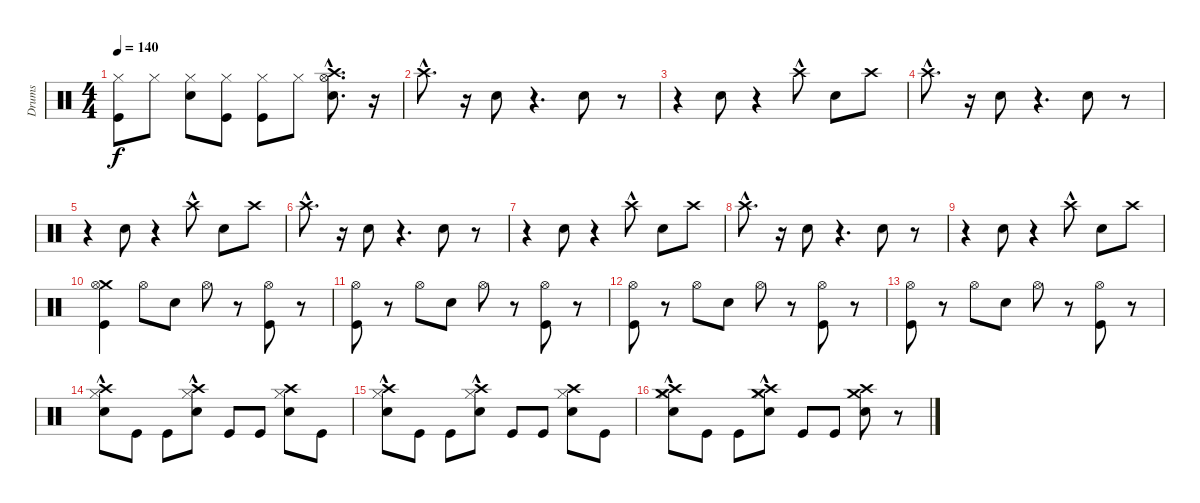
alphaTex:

\track ("Drums" "Drums") {instrument percussion}
\staff {score}
\articulation defaults
\ts (4 4)
\tempo 140
\clef neutral
\ks c
("Hi-Hat (closed)" "Kick (hit)").8{dy f} "Hi-Hat (closed)".8 ("Hi-Hat (closed)" "Electric Snare (hit)").8 ("Hi-Hat (closed)" "Kick (hit)").8 ("Hi-Hat (closed)" "Kick (hit)").8 "Hi-Hat (closed)".8 ("Electric Snare (hit)" "Crash high (hit)"{hac} "Hi-Hat (open)").8{d} r.16 |
"Crash high (hit)"{hac}.8{d} r.16 "Electric Snare (hit)".8 r.4{d} "Electric Snare (hit)".8 r.8 |
r.4 "Electric Snare (hit)".8 r.4 "Crash high (hit)"{hac}.8 "Electric Snare (hit)".8 "Crash high (hit)".8 |
"Crash high (hit)"{hac}.8{d} r.16 "Electric Snare (hit)".8 r.4{d} "Electric Snare (hit)".8 r.8 |
r.4 "Electric Snare (hit)".8 r.4 "Crash high (hit)"{hac}.8 "Electric Snare (hit)".8 "Crash high (hit)".8 |
"Crash high (hit)"{hac}.8{d} r.16 "Electric Snare (hit)".8 r.4{d} "Electric Snare (hit)".8 r.8 |
r.4 "Electric Snare (hit)".8 r.4 "Crash high (hit)"{hac}.8 "Electric Snare (hit)".8 "Crash high (hit)".8 |
"Crash high (hit)"{hac}.8{d} r.16 "Electric Snare (hit)".8 r.4{d} "Electric Snare (hit)".8 r.8 |
r.4 "Electric Snare (hit)".8 r.4 "Crash high (hit)"{hac}.8 "Electric Snare (hit)".8 "Crash high (hit)".8 |
("Crash medium (hit)" "Kick (hit)" "Hi-Hat (open)").4 "Hi-Hat (open)".8 "Electric Snare (hit)".8 "Hi-Hat (open)".8 r.8 ("Kick (hit)" "Hi-Hat (open)").8 r.8 |
("Kick (hit)" "Hi-Hat (open)").8 r.8 "Hi-Hat (open)".8 "Electric Snare (hit)".8 "Hi-Hat (open)".8 r.8 ("Kick (hit)" "Hi-Hat (open)").8 r.8 |
("Kick (hit)" "Hi-Hat (open)").8 r.8 "Hi-Hat (open)".8 "Electric Snare (hit)".8 "Hi-Hat (open)".8 r.8 ("Kick (hit)" "Hi-Hat (open)").8 r.8 |
("Kick (hit)" "Hi-Hat (open)").8 r.8 "Hi-Hat (open)".8 "Electric Snare (hit)".8 "Hi-Hat (open)".8 r.8 ("Kick (hit)" "Hi-Hat (open)").8 r.8 |
("Hi-Hat (closed)"{hac} "Electric Snare (hit)" "Crash high (hit)").8 "Kick (hit)".8 "Kick (hit)".8 ("Electric Snare (hit)" "Hi-Hat (closed)"{hac} "Crash high (hit)").8 "Kick (hit)".8 "Kick (hit)".8 ("Electric Snare (hit)" "Hi-Hat (closed)" "Crash high (hit)").8 "Kick (hit)".8 |
("Crash high (hit)" "Hi-Hat (closed)"{hac} "Electric Snare (hit)").8 "Kick (hit)".8 "Kick (hit)".8 ("Crash high (hit)" "Electric Snare (hit)" "Hi-Hat (closed)"{hac}).8 "Kick (hit)".8 "Kick (hit)".8 ("Crash high (hit)" "Electric Snare (hit)" "Hi-Hat (closed)").8 "Kick (hit)".8 |
("Crash high (hit)" "Crash medium (hit)" "Hi-Hat (closed)"{hac} "Electric Snare (hit)").8 "Kick (hit)".8 "Kick (hit)".8 ("Crash medium (hit)" "Electric Snare (hit)" "Hi-Hat (closed)"{hac} "Crash high (hit)").8 "Kick (hit)".8 "Kick (hit)".8 ("Crash medium (hit)" "Electric Snare (hit)" "Crash high (hit)").8 r.8
